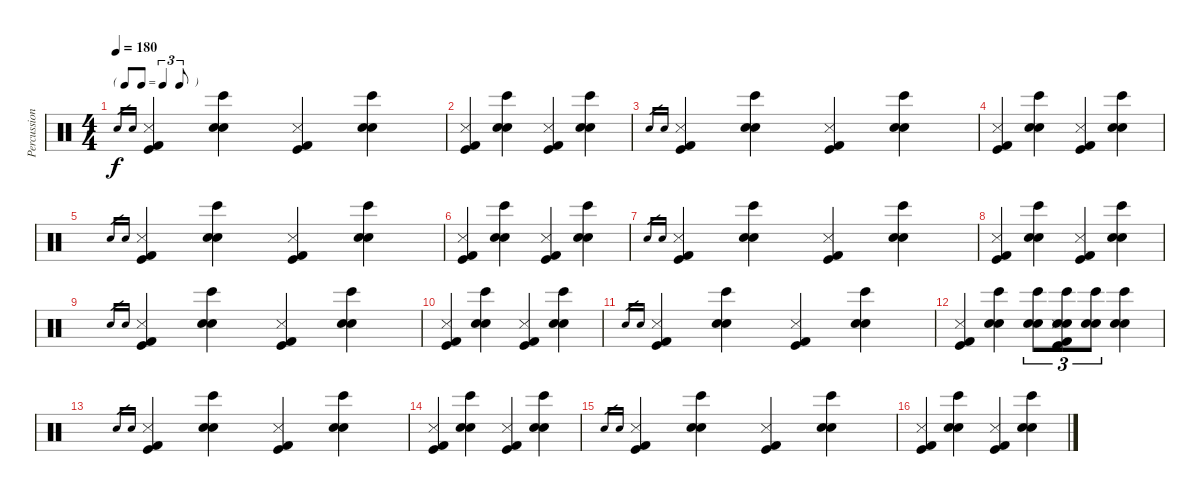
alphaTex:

\track ("Percussion" "Percussion") {instrument percussion}
\staff {score}
\articulation defaults
\ts (4 4)
\tf triplet8th
\tempo 180
\clef neutral
\ks c "Electric Snare (hit)".16{gr dy f} "Snare (hit) 2".16{gr}
("Snare (side stick) 3" "Kick (hit)" "Kick (hit) 2").4 ("Bongo High (hit)" "Electric Snare (hit)" "Snare (hit) 2").4 ("Snare (side stick) 3" "Kick (hit)" "Kick (hit) 2").4 ("Bongo High (hit)" "Electric Snare (hit)" "Snare (hit) 2").4 |
("Snare (side stick) 3" "Kick (hit)" "Kick (hit) 2").4 ("Bongo High (hit)" "Electric Snare (hit)" "Snare (hit) 2").4 ("Snare (side stick) 3" "Kick (hit)" "Kick (hit) 2").4 ("Bongo High (hit)" "Electric Snare (hit)" "Snare (hit) 2").4 |
"Electric Snare (hit)".16{gr} "Snare (hit) 2".16{gr} ("Snare (side stick) 3" "Kick (hit)" "Kick (hit) 2").4 ("Bongo High (hit)" "Electric Snare (hit)" "Snare (hit) 2").4 ("Snare (side stick) 3" "Kick (hit)" "Kick (hit) 2").4 ("Bongo High (hit)" "Electric Snare (hit)" "Snare (hit) 2").4 |
("Snare (side stick) 3" "Kick (hit)" "Kick (hit) 2").4 ("Bongo High (hit)" "Electric Snare (hit)" "Snare (hit) 2").4 ("Snare (side stick) 3" "Kick (hit)" "Kick (hit) 2").4 ("Bongo High (hit)" "Electric Snare (hit)" "Snare (hit) 2").4 |
"Electric Snare (hit)".16{gr} "Snare (hit) 2".16{gr} ("Snare (side stick) 3" "Kick (hit)" "Kick (hit) 2").4 ("Bongo High (hit)" "Electric Snare (hit)" "Snare (hit) 2").4 ("Snare (side stick) 3" "Kick (hit)" "Kick (hit) 2").4 ("Bongo High (hit)" "Electric Snare (hit)" "Snare (hit) 2").4 |
("Snare (side stick) 3" "Kick (hit)" "Kick (hit) 2").4 ("Bongo High (hit)" "Electric Snare (hit)" "Snare (hit) 2").4 ("Snare (side stick) 3" "Kick (hit)" "Kick (hit) 2").4 ("Bongo High (hit)" "Electric Snare (hit)" "Snare (hit) 2").4 |
"Electric Snare (hit)".16{gr} "Snare (hit) 2".16{gr} ("Snare (side stick) 3" "Kick (hit)" "Kick (hit) 2").4 ("Bongo High (hit)" "Electric Snare (hit)" "Snare (hit) 2").4 ("Snare (side stick) 3" "Kick (hit)" "Kick (hit) 2").4 ("Bongo High (hit)" "Electric Snare (hit)" "Snare (hit) 2").4 |
("Snare (side stick) 3" "Kick (hit)" "Kick (hit) 2").4 ("Bongo High (hit)" "Electric Snare (hit)" "Snare (hit) 2").4 ("Snare (side stick) 3" "Kick (hit)" "Kick (hit) 2").4 ("Bongo High (hit)" "Electric Snare (hit)" "Snare (hit) 2").4 |
"Electric Snare (hit)".16{gr} "Snare (hit) 2".16{gr} ("Snare (side stick) 3" "Kick (hit)" "Kick (hit) 2").4 ("Bongo High (hit)" "Electric Snare (hit)" "Snare (hit) 2").4 ("Snare (side stick) 3" "Kick (hit)" "Kick (hit) 2").4 ("Bongo High (hit)" "Electric Snare (hit)" "Snare (hit) 2").4 |
("Snare (side stick) 3" "Kick (hit)" "Kick (hit) 2").4 ("Bongo High (hit)" "Electric Snare (hit)" "Snare (hit) 2").4 ("Snare (side stick) 3" "Kick (hit)" "Kick (hit) 2").4 ("Bongo High (hit)" "Electric Snare (hit)" "Snare (hit) 2").4 |
"Electric Snare (hit)".16{gr} "Snare (hit) 2".16{gr} ("Snare (side stick) 3" "Kick (hit)" "Kick (hit) 2").4 ("Bongo High (hit)" "Electric Snare (hit)" "Snare (hit) 2").4 ("Snare (side stick) 3" "Kick (hit)" "Kick (hit) 2").4 ("Bongo High (hit)" "Electric Snare (hit)" "Snare (hit) 2").4 |
("Snare (side stick) 3" "Kick (hit)" "Kick (hit) 2").4 ("Bongo High (hit)" "Electric Snare (hit)" "Snare (hit) 2").4 ("Bongo High (hit)" "Electric Snare (hit)" "Snare (hit) 2").8{tu (3 2)} ("Bongo High (hit)" "Electric Snare (hit)" "Snare (hit) 2" "Snare (side stick) 3" "Kick (hit)" "Kick (hit) 2").8{tu (3 2)} ("Bongo High (hit)" "Electric Snare (hit)" "Snare (hit) 2").8{tu (3 2)} ("Bongo High (hit)" "Electric Snare (hit)" "Snare (hit) 2").4 |
"Electric Snare (hit)".16{gr} "Snare (hit) 2".16{gr} ("Snare (side stick) 3" "Kick (hit)" "Kick (hit) 2").4 ("Bongo High (hit)" "Electric Snare (hit)" "Snare (hit) 2").4 ("Snare (side stick) 3" "Kick (hit)" "Kick (hit) 2").4 ("Bongo High (hit)" "Electric Snare (hit)" "Snare (hit) 2").4 |
("Snare (side stick) 3" "Kick (hit)" "Kick (hit) 2").4 ("Bongo High (hit)" "Electric Snare (hit)" "Snare (hit) 2").4 ("Snare (side stick) 3" "Kick (hit)" "Kick (hit) 2").4 ("Bongo High (hit)" "Electric Snare (hit)" "Snare (hit) 2").4 |
"Electric Snare (hit)".16{gr} "Snare (hit) 2".16{gr} ("Snare (side stick) 3" "Kick (hit)" "Kick (hit) 2").4 ("Bongo High (hit)" "Electric Snare (hit)" "Snare (hit) 2").4 ("Snare (side stick) 3" "Kick (hit)" "Kick (hit) 2").4 ("Bongo High (hit)" "Electric Snare (hit)" "Snare (hit) 2").4 |
("Snare (side stick) 3" "Kick (hit)" "Kick (hit) 2").4 ("Bongo High (hit)" "Electric Snare (hit)" "Snare (hit) 2").4 ("Snare (side stick) 3" "Kick (hit)" "Kick (hit) 2").4 ("Bongo High (hit)" "Electric Snare (hit)" "Snare (hit) 2").4
